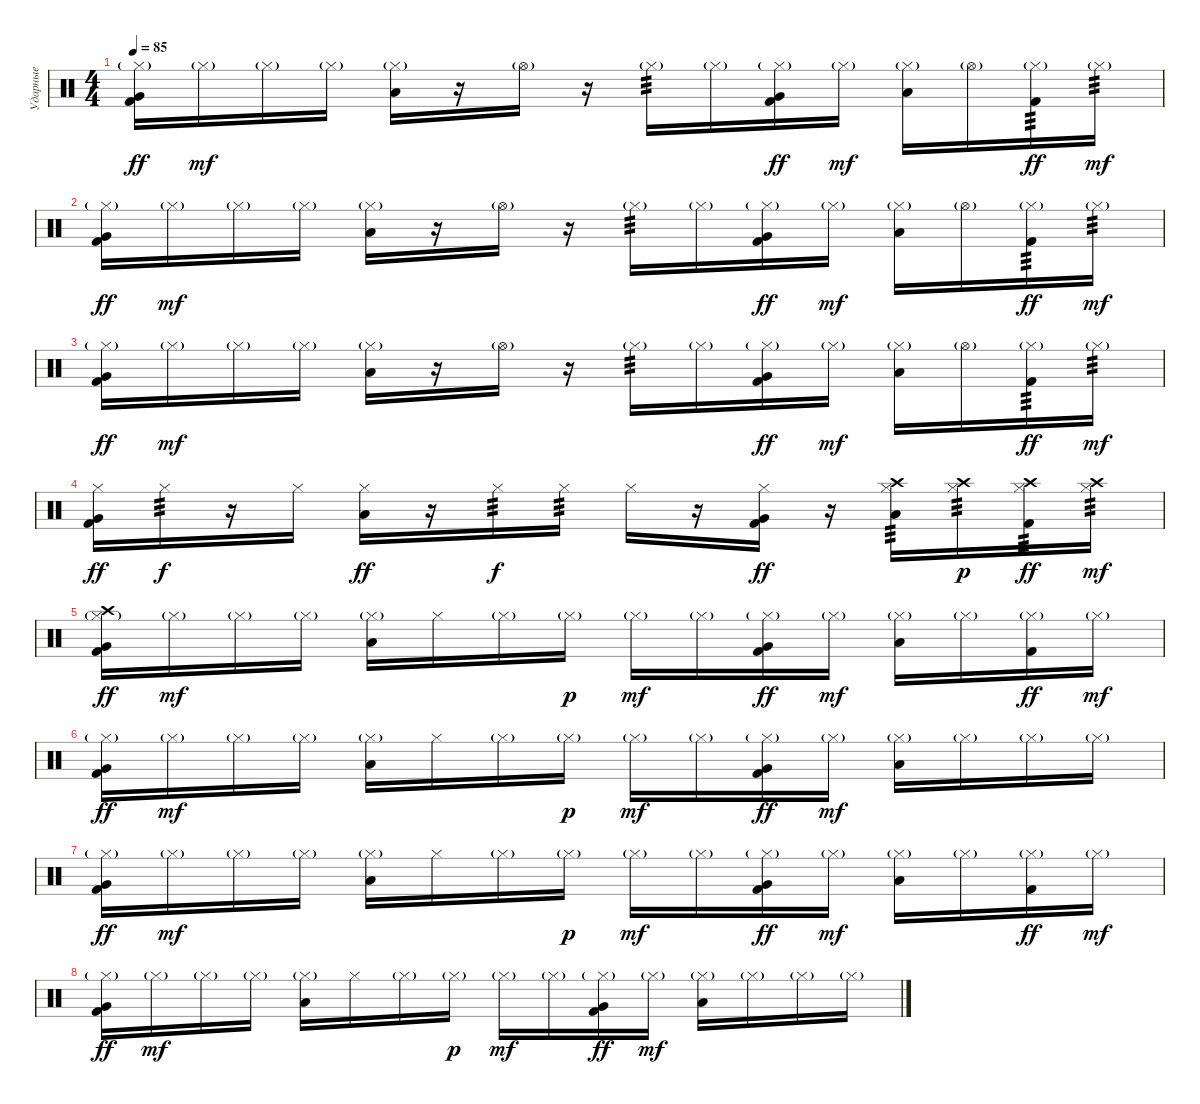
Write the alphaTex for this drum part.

\track ("Ударные" "Ударные") {instrument percussion}
\staff {score}
\articulation defaults
\ts (4 4)
\tempo 85
\clef neutral
\ks c
("Very Low Tom (hit)" "Hi-Hat (closed)"{g} "Kick (hit) 2").16{dy ff} "Hi-Hat (closed)"{g}.16{dy mf} "Hi-Hat (closed)"{g}.16 "Hi-Hat (closed)"{g}.16 ("Low Tom (hit)" "Hi-Hat (closed)"{g}).16 r.16 "Hi-Hat (open)"{g}.16 r.16 "Hi-Hat (closed)"{g}.16{tp 3} "Hi-Hat (closed)"{g}.16 ("Very Low Tom (hit)" "Hi-Hat (closed)"{g} "Kick (hit) 2").16{dy ff} "Hi-Hat (closed)"{g}.16{dy mf} ("Low Tom (hit)" "Hi-Hat (closed)"{g}).16 "Hi-Hat (open)"{g}.16 ("Hi-Hat (closed)"{g} "Kick (hit) 2").16{tp 3 dy ff} "Hi-Hat (closed)"{g}.16{tp 3 dy mf} |
("Very Low Tom (hit)" "Hi-Hat (closed)"{g} "Kick (hit) 2").16{dy ff} "Hi-Hat (closed)"{g}.16{dy mf} "Hi-Hat (closed)"{g}.16 "Hi-Hat (closed)"{g}.16 ("Low Tom (hit)" "Hi-Hat (closed)"{g}).16 r.16 "Hi-Hat (open)"{g}.16 r.16 "Hi-Hat (closed)"{g}.16{tp 3} "Hi-Hat (closed)"{g}.16 ("Very Low Tom (hit)" "Hi-Hat (closed)"{g} "Kick (hit) 2").16{dy ff} "Hi-Hat (closed)"{g}.16{dy mf} ("Low Tom (hit)" "Hi-Hat (closed)"{g}).16 "Hi-Hat (open)"{g}.16 ("Hi-Hat (closed)"{g} "Kick (hit) 2").16{tp 3 dy ff} "Hi-Hat (closed)"{g}.16{tp 3 dy mf} |
("Very Low Tom (hit)" "Hi-Hat (closed)"{g} "Kick (hit) 2").16{dy ff} "Hi-Hat (closed)"{g}.16{dy mf} "Hi-Hat (closed)"{g}.16 "Hi-Hat (closed)"{g}.16 ("Low Tom (hit)" "Hi-Hat (closed)"{g}).16 r.16 "Hi-Hat (open)"{g}.16 r.16 "Hi-Hat (closed)"{g}.16{tp 3} "Hi-Hat (closed)"{g}.16 ("Very Low Tom (hit)" "Hi-Hat (closed)"{g} "Kick (hit) 2").16{dy ff} "Hi-Hat (closed)"{g}.16{dy mf} ("Low Tom (hit)" "Hi-Hat (closed)"{g}).16 "Hi-Hat (open)"{g}.16 ("Hi-Hat (closed)"{g} "Kick (hit) 2").16{tp 3 dy ff} "Hi-Hat (closed)"{g}.16{tp 3 dy mf} |
("Very Low Tom (hit)" "Hi-Hat (closed)" "Kick (hit) 2").16{dy ff} "Hi-Hat (closed)".16{tp 3 dy f} r.16 "Hi-Hat (closed)".16 ("Low Tom (hit)" "Hi-Hat (closed)").16{dy ff} r.16 "Hi-Hat (closed)".16{tp 3 dy f} "Hi-Hat (closed)".16{tp 3} "Hi-Hat (closed)".16 r.16 ("Very Low Tom (hit)" "Hi-Hat (closed)" "Kick (hit) 2").16{dy ff} r.16 ("Crash high (hit)" "Low Tom (hit)" "Hi-Hat (closed)").16{tp 3} ("Crash high (hit)" "Hi-Hat (closed)").16{tp 3 dy p} ("Crash high (hit)" "Hi-Hat (closed)" "Kick (hit) 2").16{tp 3 dy ff} ("Crash high (hit)" "Hi-Hat (closed)").16{tp 3 dy mf} |
("Crash high (hit)" "Very Low Tom (hit)" "Hi-Hat (closed)"{g} "Kick (hit) 2").16{dy ff} "Hi-Hat (closed)"{g}.16{dy mf} "Hi-Hat (closed)"{g}.16 "Hi-Hat (closed)"{g}.16 ("Low Tom (hit)" "Hi-Hat (closed)"{g}).16 "Hi-Hat (closed)".16 "Hi-Hat (closed)"{g}.16 "Hi-Hat (closed)"{g}.16{dy p} "Hi-Hat (closed)"{g}.16{dy mf} "Hi-Hat (closed)"{g}.16 ("Very Low Tom (hit)" "Hi-Hat (closed)"{g} "Kick (hit) 2").16{dy ff} "Hi-Hat (closed)"{g}.16{dy mf} ("Low Tom (hit)" "Hi-Hat (closed)"{g}).16 "Hi-Hat (closed)"{g}.16 ("Hi-Hat (closed)"{g} "Kick (hit) 2").16{dy ff} "Hi-Hat (closed)"{g}.16{dy mf} |
("Very Low Tom (hit)" "Hi-Hat (closed)"{g} "Kick (hit) 2").16{dy ff} "Hi-Hat (closed)"{g}.16{dy mf} "Hi-Hat (closed)"{g}.16 "Hi-Hat (closed)"{g}.16 ("Low Tom (hit)" "Hi-Hat (closed)"{g}).16 "Hi-Hat (closed)".16 "Hi-Hat (closed)"{g}.16 "Hi-Hat (closed)"{g}.16{dy p} "Hi-Hat (closed)"{g}.16{dy mf} "Hi-Hat (closed)"{g}.16 ("Very Low Tom (hit)" "Hi-Hat (closed)"{g} "Kick (hit) 2").16{dy ff} "Hi-Hat (closed)"{g}.16{dy mf} ("Low Tom (hit)" "Hi-Hat (closed)"{g}).16 "Hi-Hat (closed)"{g}.16 "Hi-Hat (closed)"{g}.16 "Hi-Hat (closed)"{g}.16 |
("Very Low Tom (hit)" "Hi-Hat (closed)"{g} "Kick (hit) 2").16{dy ff} "Hi-Hat (closed)"{g}.16{dy mf} "Hi-Hat (closed)"{g}.16 "Hi-Hat (closed)"{g}.16 ("Low Tom (hit)" "Hi-Hat (closed)"{g}).16 "Hi-Hat (closed)".16 "Hi-Hat (closed)"{g}.16 "Hi-Hat (closed)"{g}.16{dy p} "Hi-Hat (closed)"{g}.16{dy mf} "Hi-Hat (closed)"{g}.16 ("Very Low Tom (hit)" "Hi-Hat (closed)"{g} "Kick (hit) 2").16{dy ff} "Hi-Hat (closed)"{g}.16{dy mf} ("Low Tom (hit)" "Hi-Hat (closed)"{g}).16 "Hi-Hat (closed)"{g}.16 ("Hi-Hat (closed)"{g} "Kick (hit) 2").16{dy ff} "Hi-Hat (closed)"{g}.16{dy mf} |
("Very Low Tom (hit)" "Hi-Hat (closed)"{g} "Kick (hit) 2").16{dy ff} "Hi-Hat (closed)"{g}.16{dy mf} "Hi-Hat (closed)"{g}.16 "Hi-Hat (closed)"{g}.16 ("Low Tom (hit)" "Hi-Hat (closed)"{g}).16 "Hi-Hat (closed)".16 "Hi-Hat (closed)"{g}.16 "Hi-Hat (closed)"{g}.16{dy p} "Hi-Hat (closed)"{g}.16{dy mf} "Hi-Hat (closed)"{g}.16 ("Very Low Tom (hit)" "Hi-Hat (closed)"{g} "Kick (hit) 2").16{dy ff} "Hi-Hat (closed)"{g}.16{dy mf} ("Low Tom (hit)" "Hi-Hat (closed)"{g}).16 "Hi-Hat (closed)"{g}.16 "Hi-Hat (closed)"{g}.16 "Hi-Hat (closed)"{g}.16
